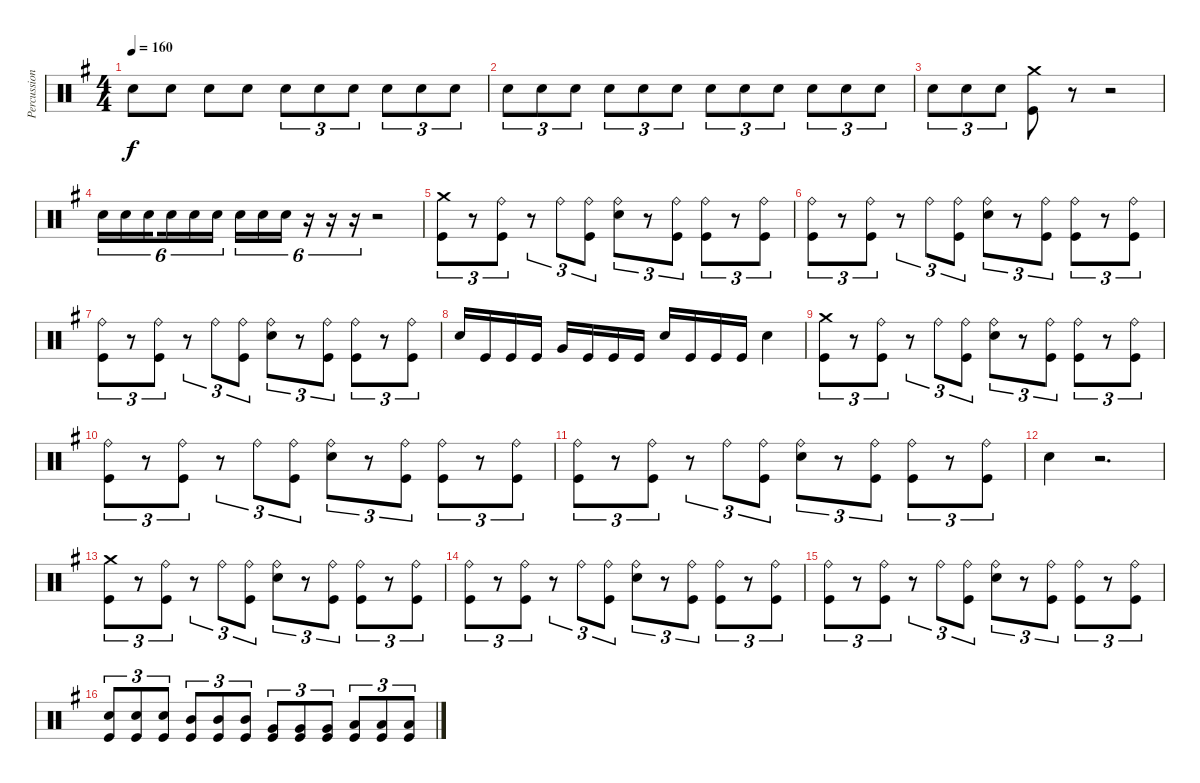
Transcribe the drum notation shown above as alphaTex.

\track ("Percussions" "Percussion") {instrument percussion}
\staff {score}
\articulation defaults
\ts (4 4)
\tempo 160
\clef neutral
\ks g "Electric Snare (hit)".8{dy f} "Electric Snare (hit)".8 "Electric Snare (hit)".8 "Electric Snare (hit)".8 "Electric Snare (hit)".8{tu (3 2)} "Electric Snare (hit)".8{tu (3 2)} "Electric Snare (hit)".8{tu (3 2)} "Electric Snare (hit)".8{tu (3 2)} "Electric Snare (hit)".8{tu (3 2)} "Electric Snare (hit)".8{tu (3 2)}
|
"Electric Snare (hit)".8{tu (3 2)} "Electric Snare (hit)".8{tu (3 2)} "Electric Snare (hit)".8{tu (3 2)} "Electric Snare (hit)".8{tu (3 2)} "Electric Snare (hit)".8{tu (3 2)} "Electric Snare (hit)".8{tu (3 2)} "Electric Snare (hit)".8{tu (3 2)} "Electric Snare (hit)".8{tu (3 2)} "Electric Snare (hit)".8{tu (3 2)} "Electric Snare (hit)".8{tu (3 2)} "Electric Snare (hit)".8{tu (3 2)} "Electric Snare (hit)".8{tu (3 2)} |
"Electric Snare (hit)".8{tu (3 2)} "Electric Snare (hit)".8{tu (3 2)} "Electric Snare (hit)".8{tu (3 2)} ("Kick (hit)" "Crash medium (hit)").8 r.8 r.2 |
"Electric Snare (hit)".16{tu (6 4)} "Electric Snare (hit)".16{tu (6 4)} "Electric Snare (hit)".16{tu (6 4) beam splitsecondary} "Electric Snare (hit)".16{tu (6 4)} "Electric Snare (hit)".16{tu (6 4)} "Electric Snare (hit)".16{tu (6 4)} "Electric Snare (hit)".16{tu (6 4)} "Electric Snare (hit)".16{tu (6 4)} "Electric Snare (hit)".16{tu (6 4)} r.16{tu (6 4)} r.16{tu (6 4)} r.16{tu (6 4)} r.2 |
("Kick (hit)" "Crash medium (hit)").8{tu (3 2)} r.8{tu (3 2)} ("Kick (hit)" "Ride (bell)").8{tu (3 2)} r.8{tu (3 2)} "Ride (bell)".8{tu (3 2)} ("Kick (hit)" "Ride (bell)").8{tu (3 2)} ("Electric Snare (hit)" "Ride (bell)").8{tu (3 2)} r.8{tu (3 2)} ("Kick (hit)" "Ride (bell)").8{tu (3 2)} ("Kick (hit)" "Ride (bell)").8{tu (3 2)} r.8{tu (3 2)} ("Kick (hit)" "Ride (bell)").8{tu (3 2)} |
("Kick (hit)" "Ride (bell)").8{tu (3 2)} r.8{tu (3 2)} ("Kick (hit)" "Ride (bell)").8{tu (3 2)} r.8{tu (3 2)} "Ride (bell)".8{tu (3 2)} ("Kick (hit)" "Ride (bell)").8{tu (3 2)} ("Electric Snare (hit)" "Ride (bell)").8{tu (3 2)} r.8{tu (3 2)} ("Kick (hit)" "Ride (bell)").8{tu (3 2)} ("Kick (hit)" "Ride (bell)").8{tu (3 2)} r.8{tu (3 2)} ("Kick (hit)" "Ride (bell)").8{tu (3 2)} |
("Kick (hit)" "Ride (bell)").8{tu (3 2)} r.8{tu (3 2)} ("Kick (hit)" "Ride (bell)").8{tu (3 2)} r.8{tu (3 2)} "Ride (bell)".8{tu (3 2)} ("Kick (hit)" "Ride (bell)").8{tu (3 2)} ("Electric Snare (hit)" "Ride (bell)").8{tu (3 2)} r.8{tu (3 2)} ("Kick (hit)" "Ride (bell)").8{tu (3 2)} ("Kick (hit)" "Ride (bell)").8{tu (3 2)} r.8{tu (3 2)} ("Kick (hit)" "Ride (bell)").8{tu (3 2)} |
"Electric Snare (hit)".16 "Kick (hit)".16 "Kick (hit)".16 "Kick (hit)".16 "Very Low Tom (hit)".16 "Kick (hit)".16 "Kick (hit)".16 "Kick (hit)".16 "Electric Snare (hit)".16 "Kick (hit)".16 "Kick (hit)".16 "Kick (hit)".16 "Electric Snare (hit)".4 |
("Kick (hit)" "Crash medium (hit)").8{tu (3 2)} r.8{tu (3 2)} ("Kick (hit)" "Ride (bell)").8{tu (3 2)} r.8{tu (3 2)} "Ride (bell)".8{tu (3 2)} ("Kick (hit)" "Ride (bell)").8{tu (3 2)} ("Electric Snare (hit)" "Ride (bell)").8{tu (3 2)} r.8{tu (3 2)} ("Kick (hit)" "Ride (bell)").8{tu (3 2)} ("Kick (hit)" "Ride (bell)").8{tu (3 2)} r.8{tu (3 2)} ("Kick (hit)" "Ride (bell)").8{tu (3 2)} |
("Kick (hit)" "Ride (bell)").8{tu (3 2)} r.8{tu (3 2)} ("Kick (hit)" "Ride (bell)").8{tu (3 2)} r.8{tu (3 2)} "Ride (bell)".8{tu (3 2)} ("Kick (hit)" "Ride (bell)").8{tu (3 2)} ("Electric Snare (hit)" "Ride (bell)").8{tu (3 2)} r.8{tu (3 2)} ("Kick (hit)" "Ride (bell)").8{tu (3 2)} ("Kick (hit)" "Ride (bell)").8{tu (3 2)} r.8{tu (3 2)} ("Kick (hit)" "Ride (bell)").8{tu (3 2)} |
("Kick (hit)" "Ride (bell)").8{tu (3 2)} r.8{tu (3 2)} ("Kick (hit)" "Ride (bell)").8{tu (3 2)} r.8{tu (3 2)} "Ride (bell)".8{tu (3 2)} ("Kick (hit)" "Ride (bell)").8{tu (3 2)} ("Electric Snare (hit)" "Ride (bell)").8{tu (3 2)} r.8{tu (3 2)} ("Kick (hit)" "Ride (bell)").8{tu (3 2)} ("Kick (hit)" "Ride (bell)").8{tu (3 2)} r.8{tu (3 2)} ("Kick (hit)" "Ride (bell)").8{tu (3 2)} |
"Electric Snare (hit)".4 r.2{d} |
("Kick (hit)" "Crash medium (hit)").8{tu (3 2)} r.8{tu (3 2)} ("Kick (hit)" "Ride (bell)").8{tu (3 2)} r.8{tu (3 2)} "Ride (bell)".8{tu (3 2)} ("Kick (hit)" "Ride (bell)").8{tu (3 2)} ("Electric Snare (hit)" "Ride (bell)").8{tu (3 2)} r.8{tu (3 2)} ("Kick (hit)" "Ride (bell)").8{tu (3 2)} ("Kick (hit)" "Ride (bell)").8{tu (3 2)} r.8{tu (3 2)} ("Kick (hit)" "Ride (bell)").8{tu (3 2)} |
("Kick (hit)" "Ride (bell)").8{tu (3 2)} r.8{tu (3 2)} ("Kick (hit)" "Ride (bell)").8{tu (3 2)} r.8{tu (3 2)} "Ride (bell)".8{tu (3 2)} ("Kick (hit)" "Ride (bell)").8{tu (3 2)} ("Electric Snare (hit)" "Ride (bell)").8{tu (3 2)} r.8{tu (3 2)} ("Kick (hit)" "Ride (bell)").8{tu (3 2)} ("Kick (hit)" "Ride (bell)").8{tu (3 2)} r.8{tu (3 2)} ("Kick (hit)" "Ride (bell)").8{tu (3 2)} |
("Kick (hit)" "Ride (bell)").8{tu (3 2)} r.8{tu (3 2)} ("Kick (hit)" "Ride (bell)").8{tu (3 2)} r.8{tu (3 2)} "Ride (bell)".8{tu (3 2)} ("Kick (hit)" "Ride (bell)").8{tu (3 2)} ("Electric Snare (hit)" "Ride (bell)").8{tu (3 2)} r.8{tu (3 2)} ("Kick (hit)" "Ride (bell)").8{tu (3 2)} ("Kick (hit)" "Ride (bell)").8{tu (3 2)} r.8{tu (3 2)} ("Kick (hit)" "Ride (bell)").8{tu (3 2)} |
("Kick (hit)" "Electric Snare (hit)").8{tu (3 2)} ("Kick (hit)" "Electric Snare (hit)").8{tu (3 2)} ("Kick (hit)" "Electric Snare (hit)").8{tu (3 2)} ("Kick (hit)" "Mid Tom (hit)").8{tu (3 2)} ("Kick (hit)" "Mid Tom (hit)").8{tu (3 2)} ("Kick (hit)" "Mid Tom (hit)").8{tu (3 2)} ("Kick (hit)" "Very Low Tom (hit)").8{tu (3 2)} ("Kick (hit)" "Very Low Tom (hit)").8{tu (3 2)} ("Kick (hit)" "Very Low Tom (hit)").8{tu (3 2)} ("Kick (hit)" "Low Floor Tom (hit)").8{tu (3 2)} ("Kick (hit)" "Low Floor Tom (hit)").8{tu (3 2)} ("Kick (hit)" "Low Floor Tom (hit)").8{tu (3 2)}
